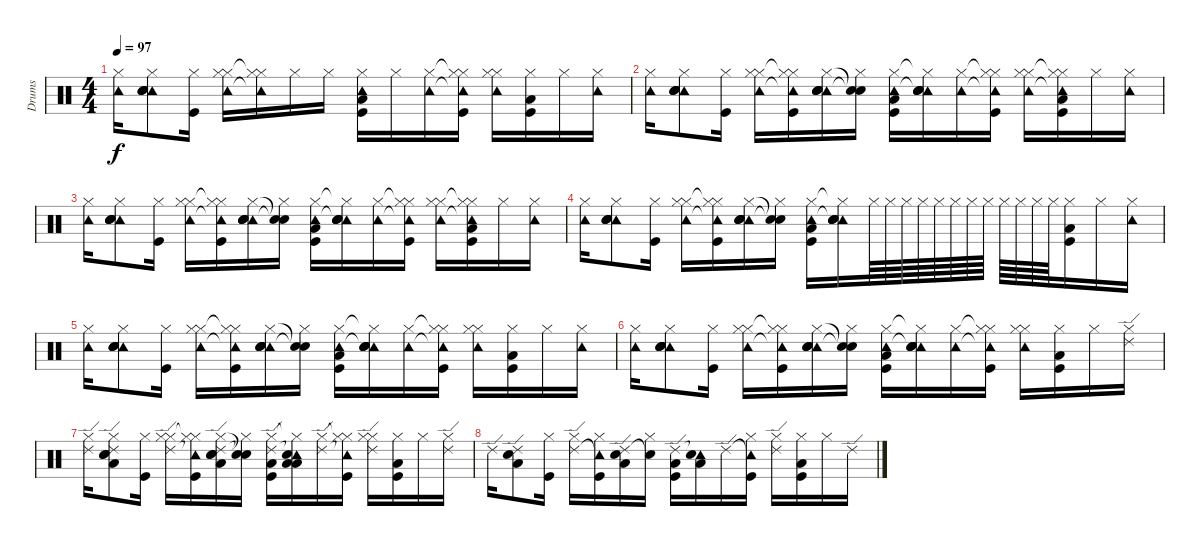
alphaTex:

\track ("Drums" "Drums") {instrument percussion}
\staff {score}
\articulation defaults
\ts (4 4)
\tempo 97
\clef neutral
\ks c
("Hi-Hat (closed)" "Tambourine (hit)").16{dy f} ("Hi-Hat (closed)" "Tambourine (hit)" "Electric Snare (hit)" "Snare (hit) 2" "Snare (hit) 2").8 ("Kick (hit)" "Hi-Hat (closed)").16 ("Hi-Hat (closed)" "Tambourine (hit)" "Hi-Hat (closed)").16 ("Hi-Hat (closed)"{t} "Tambourine (hit)"{t} "Hi-Hat (closed)").16 "Hi-Hat (closed)".16 "Hi-Hat (closed)".16 ("Hi-Hat (closed)" "Tambourine (hit)" "Kick (hit)" "Low Tom (hit)").16 "Hi-Hat (closed)".16 ("Hi-Hat (closed)" "Tambourine (hit)").16 ("Hi-Hat (closed)"{t} "Tambourine (hit)"{t} "Kick (hit)" "Hi-Hat (closed)").16 ("Hi-Hat (closed)" "Tambourine (hit)" "Hi-Hat (closed)").16 ("Kick (hit)" "Hi-Hat (closed)" "Low Tom (hit)").16 "Hi-Hat (closed)".16 ("Hi-Hat (closed)" "Tambourine (hit)").16 |
("Hi-Hat (closed)" "Tambourine (hit)").16 ("Hi-Hat (closed)" "Tambourine (hit)" "Electric Snare (hit)" "Snare (hit) 2" "Snare (hit) 2").8 ("Kick (hit)" "Hi-Hat (closed)").16 ("Hi-Hat (closed)" "Tambourine (hit)" "Hi-Hat (closed)").16 ("Hi-Hat (closed)"{t} "Tambourine (hit)"{t} "Kick (hit)" "Hi-Hat (closed)").16 ("Hi-Hat (closed)" "Tambourine (hit)" "Electric Snare (hit)" "Snare (hit) 2" "Snare (hit) 2").16 ("Snare (hit)"{t} "Snare (hit)"{t} "Hi-Hat (closed)").16 ("Hi-Hat (closed)" "Tambourine (hit)" "Kick (hit)" "Low Tom (hit)").16 ("Hi-Hat (closed)"{t} "Tambourine (hit)"{t} "Electric Snare (hit)" "Snare (hit) 2" "Snare (hit) 2").16 ("Hi-Hat (closed)" "Tambourine (hit)").16 ("Hi-Hat (closed)"{t} "Tambourine (hit)"{t} "Kick (hit)" "Hi-Hat (closed)").16 ("Hi-Hat (closed)" "Tambourine (hit)" "Hi-Hat (closed)").16 ("Hi-Hat (closed)"{t} "Tambourine (hit)"{t} "Kick (hit)" "Hi-Hat (closed)" "Low Tom (hit)").16 "Hi-Hat (closed)".16 ("Hi-Hat (closed)" "Tambourine (hit)").16 |
("Hi-Hat (closed)" "Tambourine (hit)").16 ("Hi-Hat (closed)" "Tambourine (hit)" "Electric Snare (hit)" "Snare (hit) 2" "Snare (hit) 2").8 ("Kick (hit)" "Hi-Hat (closed)").16 ("Hi-Hat (closed)" "Tambourine (hit)" "Hi-Hat (closed)").16 ("Hi-Hat (closed)"{t} "Tambourine (hit)"{t} "Kick (hit)" "Hi-Hat (closed)").16 ("Hi-Hat (closed)" "Tambourine (hit)" "Electric Snare (hit)" "Snare (hit) 2" "Snare (hit) 2").16 ("Snare (hit)"{t} "Snare (hit)"{t} "Hi-Hat (closed)").16 ("Hi-Hat (closed)" "Tambourine (hit)" "Kick (hit)" "Low Tom (hit)").16 ("Hi-Hat (closed)"{t} "Tambourine (hit)"{t} "Electric Snare (hit)" "Snare (hit) 2" "Snare (hit) 2").16 ("Hi-Hat (closed)" "Tambourine (hit)").16 ("Hi-Hat (closed)"{t} "Tambourine (hit)"{t} "Kick (hit)" "Hi-Hat (closed)").16 ("Hi-Hat (closed)" "Tambourine (hit)" "Hi-Hat (closed)").16 ("Hi-Hat (closed)"{t} "Tambourine (hit)"{t} "Kick (hit)" "Hi-Hat (closed)" "Low Tom (hit)").16 "Hi-Hat (closed)".16 ("Hi-Hat (closed)" "Tambourine (hit)").16 |
("Hi-Hat (closed)" "Tambourine (hit)").16 ("Hi-Hat (closed)" "Tambourine (hit)" "Electric Snare (hit)" "Snare (hit) 2" "Snare (hit) 2").8 ("Kick (hit)" "Hi-Hat (closed)").16 ("Hi-Hat (closed)" "Tambourine (hit)" "Hi-Hat (closed)").16 ("Hi-Hat (closed)"{t} "Tambourine (hit)"{t} "Kick (hit)" "Hi-Hat (closed)").16 ("Hi-Hat (closed)" "Tambourine (hit)" "Electric Snare (hit)" "Snare (hit) 2" "Snare (hit) 2").16 ("Snare (hit)"{t} "Snare (hit)"{t} "Hi-Hat (closed)").16 ("Hi-Hat (closed)" "Tambourine (hit)" "Kick (hit)" "Low Tom (hit)").16 ("Hi-Hat (closed)"{t} "Tambourine (hit)"{t} "Electric Snare (hit)" "Snare (hit) 2" "Snare (hit) 2").16 "Hi-Hat (closed)".64 "Hi-Hat (closed)".64 "Hi-Hat (closed)".64 "Hi-Hat (closed)".64 "Hi-Hat (closed)".64 "Hi-Hat (closed)".64 "Hi-Hat (closed)".64 "Hi-Hat (closed)".64 "Hi-Hat (closed)".64 "Hi-Hat (closed)".64 "Hi-Hat (closed)".64 "Hi-Hat (closed)".64 ("Kick (hit)" "Hi-Hat (closed)" "Low Tom (hit)").16 "Hi-Hat (closed)".16 ("Hi-Hat (closed)" "Tambourine (hit)").16 |
("Hi-Hat (closed)" "Tambourine (hit)").16 ("Hi-Hat (closed)" "Tambourine (hit)" "Electric Snare (hit)" "Snare (hit) 2" "Snare (hit) 2").8 ("Kick (hit)" "Hi-Hat (closed)").16 ("Hi-Hat (closed)" "Tambourine (hit)" "Hi-Hat (closed)").16 ("Hi-Hat (closed)"{t} "Tambourine (hit)"{t} "Kick (hit)" "Hi-Hat (closed)").16 ("Hi-Hat (closed)" "Tambourine (hit)" "Electric Snare (hit)" "Snare (hit) 2" "Snare (hit) 2").16 ("Snare (hit)"{t} "Snare (hit)"{t} "Hi-Hat (closed)").16 ("Hi-Hat (closed)" "Tambourine (hit)" "Kick (hit)" "Low Tom (hit)").16 ("Hi-Hat (closed)"{t} "Tambourine (hit)"{t} "Electric Snare (hit)" "Snare (hit) 2" "Snare (hit) 2").16 ("Hi-Hat (closed)" "Tambourine (hit)").16 ("Hi-Hat (closed)"{t} "Tambourine (hit)"{t} "Kick (hit)" "Hi-Hat (closed)").16 ("Hi-Hat (closed)" "Tambourine (hit)" "Hi-Hat (closed)").16 ("Kick (hit)" "Hi-Hat (closed)" "Low Tom (hit)").16 "Hi-Hat (closed)".16 ("Hi-Hat (closed)" "Tambourine (hit)").16 |
("Hi-Hat (closed)" "Tambourine (hit)").16 ("Hi-Hat (closed)" "Tambourine (hit)" "Electric Snare (hit)" "Snare (hit) 2" "Snare (hit) 2").8 ("Kick (hit)" "Hi-Hat (closed)").16 ("Hi-Hat (closed)" "Tambourine (hit)" "Hi-Hat (closed)").16 ("Hi-Hat (closed)"{t} "Tambourine (hit)"{t} "Kick (hit)" "Hi-Hat (closed)").16 ("Hi-Hat (closed)" "Tambourine (hit)" "Electric Snare (hit)" "Snare (hit) 2" "Snare (hit) 2").16 ("Snare (hit)"{t} "Snare (hit)"{t} "Hi-Hat (closed)").16 ("Hi-Hat (closed)" "Tambourine (hit)" "Kick (hit)" "Low Tom (hit)").16 ("Hi-Hat (closed)"{t} "Tambourine (hit)"{t} "Electric Snare (hit)" "Snare (hit) 2" "Snare (hit) 2").16 ("Hi-Hat (closed)" "Tambourine (hit)").16 ("Hi-Hat (closed)"{t} "Tambourine (hit)"{t} "Kick (hit)" "Hi-Hat (closed)").16 ("Hi-Hat (closed)" "Tambourine (hit)" "Hi-Hat (closed)").16 ("Kick (hit)" "Hi-Hat (closed)" "Low Tom (hit)").16 "Hi-Hat (closed)".16 ("Hi-Hat (closed)" "Ride (edge) 2").16 |
("Hi-Hat (closed)" "Ride (edge) 2").16 ("Hi-Hat (closed)" "Ride (edge) 2" "Electric Snare (hit)" "Low Tom (hit)" "Snare (hit) 2").8 ("Kick (hit)" "Hi-Hat (closed)").16 ("Hi-Hat (closed)" "Ride (edge) 2" "Hi-Hat (closed)").16 ("Hi-Hat (closed)"{t} "Tambourine (hit)"{t} "Kick (hit)" "Hi-Hat (closed)").16 ("Hi-Hat (closed)" "Ride (edge) 2" "Electric Snare (hit)" "Low Tom (hit)" "Snare (hit) 2").16 ("Snare (hit)"{t} "Snare (hit)"{t} "Hi-Hat (closed)").16 ("Hi-Hat (closed)" "Ride (edge) 2" "Kick (hit)" "Low Tom (hit)").16 ("Hi-Hat (closed)"{t} "Tambourine (hit)"{t} "Electric Snare (hit)" "Low Tom (hit)" "Low Tom (hit)").16 ("Hi-Hat (closed)" "Ride (edge) 2").16 ("Hi-Hat (closed)"{t} "Tambourine (hit)"{t} "Kick (hit)" "Hi-Hat (closed)").16 ("Hi-Hat (closed)" "Ride (edge) 2" "Hi-Hat (closed)").16 ("Kick (hit)" "Hi-Hat (closed)" "Low Tom (hit)").16 "Hi-Hat (closed)".16 ("Hi-Hat (closed)" "Ride (edge) 2").16 |
"Ride (edge) 2".16 ("Ride (edge) 2" "Electric Snare (hit)" "Low Tom (hit)").8 ("Kick (hit)" "Hi-Hat (closed)").16 ("Ride (edge) 2" "Hi-Hat (closed)").16 ("Tambourine (hit)"{t} "Kick (hit)" "Hi-Hat (closed)").16 ("Ride (edge) 2" "Electric Snare (hit)" "Low Tom (hit)").16 ("Snare (hit)"{t} "Hi-Hat (closed)").16 ("Ride (edge) 2" "Kick (hit)" "Low Tom (hit)").16 ("Tambourine (hit)"{t} "Electric Snare (hit)" "Low Tom (hit)").16 "Ride (edge) 2".16 ("Tambourine (hit)"{t} "Kick (hit)" "Hi-Hat (closed)").16 ("Ride (edge) 2" "Hi-Hat (closed)").16 ("Kick (hit)" "Hi-Hat (closed)" "Low Tom (hit)").16 "Hi-Hat (closed)".16 "Ride (edge) 2".16
